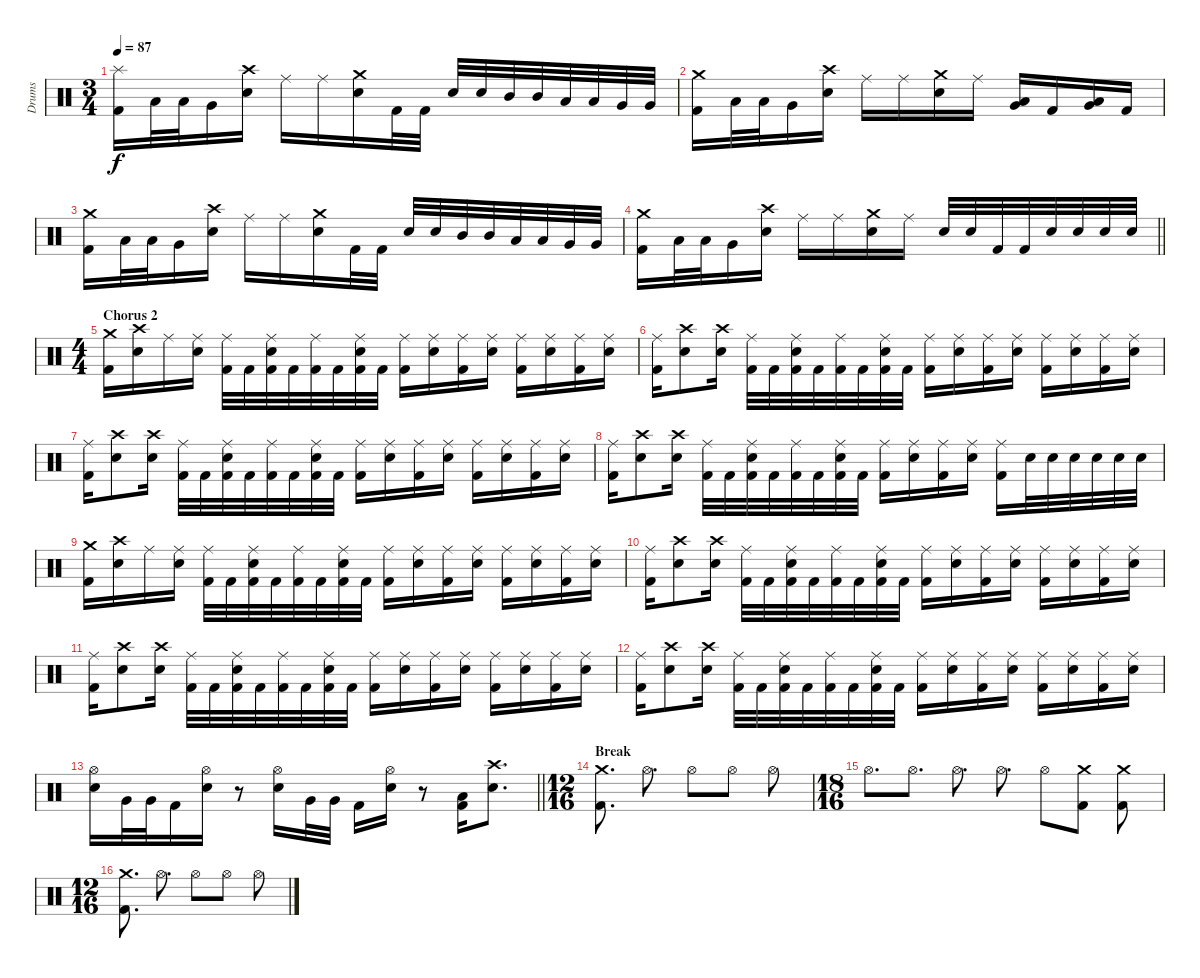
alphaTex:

\track ("Drums" "Drums") {instrument percussion}
\staff {score}
\articulation defaults
\ts (3 4)
\tempo 87
\clef neutral
\ks c
("Splash (hit)" "Kick (hit) 2").16{dy f} "Low Tom (hit)".32 "Low Tom (hit)".32 "Very Low Tom (hit)".16 ("Crash high (hit)" "Electric Snare (hit)").16 "Ride (middle)".16 "Ride (middle)".16 ("Crash medium (hit)" "Electric Snare (hit)").16 "Kick (hit) 2".32 "Kick (hit) 2".32 "Electric Snare (hit)".32 "Electric Snare (hit)".32 "Mid Tom (hit)".32 "Mid Tom (hit)".32 "Low Tom (hit)".32 "Low Tom (hit)".32 "Very Low Tom (hit)".32 "Very Low Tom (hit)".32 |
("Crash medium (hit)" "Kick (hit) 2").16 "Low Tom (hit)".32 "Low Tom (hit)".32 "Very Low Tom (hit)".16 ("Crash high (hit)" "Electric Snare (hit)").16 "Ride (middle)".16 "Ride (middle)".16 ("Crash medium (hit)" "Electric Snare (hit)").16 "Ride (middle)".16 ("Low Tom (hit)" "Very Low Tom (hit)").16 "Kick (hit) 2".16 ("Low Tom (hit)" "Very Low Tom (hit)").16 "Kick (hit) 2".16 |
("Crash medium (hit)" "Kick (hit) 2").16 "Low Tom (hit)".32 "Low Tom (hit)".32 "Very Low Tom (hit)".16 ("Crash high (hit)" "Electric Snare (hit)").16 "Ride (middle)".16 "Ride (middle)".16 ("Crash medium (hit)" "Electric Snare (hit)").16 "Kick (hit) 2".32 "Kick (hit) 2".32 "Electric Snare (hit)".32 "Electric Snare (hit)".32 "Mid Tom (hit)".32 "Mid Tom (hit)".32 "Low Tom (hit)".32 "Low Tom (hit)".32 "Very Low Tom (hit)".32 "Very Low Tom (hit)".32 |
\barLineRight lightlight
("Crash medium (hit)" "Kick (hit) 2").16 "Low Tom (hit)".32 "Low Tom (hit)".32 "Very Low Tom (hit)".16 ("Crash high (hit)" "Electric Snare (hit)").16 "Ride (middle)".16 "Ride (middle)".16 ("Crash medium (hit)" "Electric Snare (hit)").16 "Ride (middle)".16 "Electric Snare (hit)".32 "Electric Snare (hit)".32 "Kick (hit) 2".32 "Kick (hit) 2".32 "Electric Snare (hit)".32 "Electric Snare (hit)".32 "Electric Snare (hit)".32 "Electric Snare (hit)".32 |
\ts (4 4)
\section ("" "Chorus 2")
("Crash medium (hit)" "Kick (hit) 2").16 ("Crash high (hit)" "Electric Snare (hit)").16 "Ride (middle)".16 ("Ride (middle)" "Electric Snare (hit)").16 ("Ride (middle)" "Kick (hit) 2").32 "Kick (hit) 2".32 ("Ride (middle)" "Electric Snare (hit)" "Kick (hit) 2").32 "Kick (hit) 2".32 ("Ride (middle)" "Kick (hit) 2").32 "Kick (hit) 2".32 ("Ride (middle)" "Electric Snare (hit)" "Kick (hit) 2").32 "Kick (hit) 2".32 ("Ride (middle)" "Kick (hit) 2").16 ("Ride (middle)" "Electric Snare (hit)").16 ("Ride (middle)" "Kick (hit) 2").16 ("Ride (middle)" "Electric Snare (hit)").16 ("Ride (middle)" "Kick (hit) 2").16 ("Ride (middle)" "Electric Snare (hit)").16 ("Ride (middle)" "Kick (hit) 2").16 ("Ride (middle)" "Electric Snare (hit)").16 |
("Ride (middle)" "Kick (hit) 2").16 ("Crash high (hit)" "Electric Snare (hit)").8 ("Crash high (hit)" "Electric Snare (hit)").16 ("Ride (middle)" "Kick (hit) 2").32 "Kick (hit) 2".32 ("Ride (middle)" "Electric Snare (hit)" "Kick (hit) 2").32 "Kick (hit) 2".32 ("Ride (middle)" "Kick (hit) 2").32 "Kick (hit) 2".32 ("Ride (middle)" "Electric Snare (hit)" "Kick (hit) 2").32 "Kick (hit) 2".32 ("Ride (middle)" "Kick (hit) 2").16 ("Ride (middle)" "Electric Snare (hit)").16 ("Ride (middle)" "Kick (hit) 2").16 ("Ride (middle)" "Electric Snare (hit)").16 ("Ride (middle)" "Kick (hit) 2").16 ("Ride (middle)" "Electric Snare (hit)").16 ("Ride (middle)" "Kick (hit) 2").16 ("Ride (middle)" "Electric Snare (hit)").16 |
("Ride (middle)" "Kick (hit) 2").16 ("Crash high (hit)" "Electric Snare (hit)").8 ("Crash high (hit)" "Electric Snare (hit)").16 ("Ride (middle)" "Kick (hit) 2").32 "Kick (hit) 2".32 ("Ride (middle)" "Electric Snare (hit)" "Kick (hit) 2").32 "Kick (hit) 2".32 ("Ride (middle)" "Kick (hit) 2").32 "Kick (hit) 2".32 ("Ride (middle)" "Electric Snare (hit)" "Kick (hit) 2").32 "Kick (hit) 2".32 ("Ride (middle)" "Kick (hit) 2").16 ("Ride (middle)" "Electric Snare (hit)").16 ("Ride (middle)" "Kick (hit) 2").16 ("Ride (middle)" "Electric Snare (hit)").16 ("Ride (middle)" "Kick (hit) 2").16 ("Ride (middle)" "Electric Snare (hit)").16 ("Ride (middle)" "Kick (hit) 2").16 ("Ride (middle)" "Electric Snare (hit)").16 |
("Ride (middle)" "Kick (hit) 2").16 ("Crash high (hit)" "Electric Snare (hit)").8 ("Crash high (hit)" "Electric Snare (hit)").16 ("Ride (middle)" "Kick (hit) 2").32 "Kick (hit) 2".32 ("Ride (middle)" "Electric Snare (hit)" "Kick (hit) 2").32 "Kick (hit) 2".32 ("Ride (middle)" "Kick (hit) 2").32 "Kick (hit) 2".32 ("Ride (middle)" "Electric Snare (hit)" "Kick (hit) 2").32 "Kick (hit) 2".32 ("Ride (middle)" "Kick (hit) 2").16 ("Ride (middle)" "Electric Snare (hit)").16 ("Ride (middle)" "Kick (hit) 2").16 ("Ride (middle)" "Electric Snare (hit)").16 ("Ride (middle)" "Kick (hit) 2").16 "Electric Snare (hit)".32 "Electric Snare (hit)".32 "Electric Snare (hit)".32 "Electric Snare (hit)".32 "Electric Snare (hit)".32 "Electric Snare (hit)".32 |
("Crash medium (hit)" "Kick (hit) 2").16 ("Crash high (hit)" "Electric Snare (hit)").16 "Ride (middle)".16 ("Ride (middle)" "Electric Snare (hit)").16 ("Ride (middle)" "Kick (hit) 2").32 "Kick (hit) 2".32 ("Ride (middle)" "Electric Snare (hit)" "Kick (hit) 2").32 "Kick (hit) 2".32 ("Ride (middle)" "Kick (hit) 2").32 "Kick (hit) 2".32 ("Ride (middle)" "Electric Snare (hit)" "Kick (hit) 2").32 "Kick (hit) 2".32 ("Ride (middle)" "Kick (hit) 2").16 ("Ride (middle)" "Electric Snare (hit)").16 ("Ride (middle)" "Kick (hit) 2").16 ("Ride (middle)" "Electric Snare (hit)").16 ("Ride (middle)" "Kick (hit) 2").16 ("Ride (middle)" "Electric Snare (hit)").16 ("Ride (middle)" "Kick (hit) 2").16 ("Ride (middle)" "Electric Snare (hit)").16 |
("Ride (middle)" "Kick (hit) 2").16 ("Crash high (hit)" "Electric Snare (hit)").8 ("Crash high (hit)" "Electric Snare (hit)").16 ("Ride (middle)" "Kick (hit) 2").32 "Kick (hit) 2".32 ("Ride (middle)" "Electric Snare (hit)" "Kick (hit) 2").32 "Kick (hit) 2".32 ("Ride (middle)" "Kick (hit) 2").32 "Kick (hit) 2".32 ("Ride (middle)" "Electric Snare (hit)" "Kick (hit) 2").32 "Kick (hit) 2".32 ("Ride (middle)" "Kick (hit) 2").16 ("Ride (middle)" "Electric Snare (hit)").16 ("Ride (middle)" "Kick (hit) 2").16 ("Ride (middle)" "Electric Snare (hit)").16 ("Ride (middle)" "Kick (hit) 2").16 ("Ride (middle)" "Electric Snare (hit)").16 ("Ride (middle)" "Kick (hit) 2").16 ("Ride (middle)" "Electric Snare (hit)").16 |
("Ride (middle)" "Kick (hit) 2").16 ("Crash high (hit)" "Electric Snare (hit)").8 ("Crash high (hit)" "Electric Snare (hit)").16 ("Ride (middle)" "Kick (hit) 2").32 "Kick (hit) 2".32 ("Ride (middle)" "Electric Snare (hit)" "Kick (hit) 2").32 "Kick (hit) 2".32 ("Ride (middle)" "Kick (hit) 2").32 "Kick (hit) 2".32 ("Ride (middle)" "Electric Snare (hit)" "Kick (hit) 2").32 "Kick (hit) 2".32 ("Ride (middle)" "Kick (hit) 2").16 ("Ride (middle)" "Electric Snare (hit)").16 ("Ride (middle)" "Kick (hit) 2").16 ("Ride (middle)" "Electric Snare (hit)").16 ("Ride (middle)" "Kick (hit) 2").16 ("Ride (middle)" "Electric Snare (hit)").16 ("Ride (middle)" "Kick (hit) 2").16 ("Ride (middle)" "Electric Snare (hit)").16 |
("Ride (middle)" "Kick (hit) 2").16 ("Crash high (hit)" "Electric Snare (hit)").8 ("Crash high (hit)" "Electric Snare (hit)").16 ("Ride (middle)" "Kick (hit) 2").32 "Kick (hit) 2".32 ("Ride (middle)" "Electric Snare (hit)" "Kick (hit) 2").32 "Kick (hit) 2".32 ("Ride (middle)" "Kick (hit) 2").32 "Kick (hit) 2".32 ("Ride (middle)" "Electric Snare (hit)" "Kick (hit) 2").32 "Kick (hit) 2".32 ("Ride (middle)" "Kick (hit) 2").16 ("Ride (middle)" "Electric Snare (hit)").16 ("Ride (middle)" "Kick (hit) 2").16 ("Ride (middle)" "Electric Snare (hit)").16 ("Ride (middle)" "Kick (hit) 2").16 ("Ride (middle)" "Electric Snare (hit)").16 ("Ride (middle)" "Kick (hit) 2").16 ("Ride (middle)" "Electric Snare (hit)").16 |
\barLineRight lightlight
("Hi-Hat (open)" "Electric Snare (hit)").16 "Very Low Tom (hit)".32 "Very Low Tom (hit)".32 "Kick (hit) 2".16 ("Hi-Hat (open)" "Electric Snare (hit)").16 r.8 ("Hi-Hat (open)" "Electric Snare (hit)").16 "Very Low Tom (hit)".32 "Very Low Tom (hit)".32 "Kick (hit) 2".16 ("Hi-Hat (open)" "Electric Snare (hit)").16 r.8 ("Low Tom (hit)" "Kick (hit) 2").16 ("Crash high (hit)" "Electric Snare (hit)").8{d} |
\ts (12 16)
\section ("" "Break")
("Crash medium (hit)" "Kick (hit) 2").8{d} "Hi-Hat (open)".8{d} "Hi-Hat (open)".8 "Hi-Hat (open)".8 "Hi-Hat (open)".8 |
\ts (18 16)
"Hi-Hat (open)".8{d} "Hi-Hat (open)".8{d} "Hi-Hat (open)".8{d} "Hi-Hat (open)".8{d} "Hi-Hat (open)".8 ("Crash medium (hit)" "Kick (hit) 2").8 ("Crash medium (hit)" "Kick (hit) 2").8 |
\ts (12 16)
("Crash medium (hit)" "Kick (hit) 2").8{d} "Hi-Hat (open)".8{d} "Hi-Hat (open)".8 "Hi-Hat (open)".8 "Hi-Hat (open)".8
